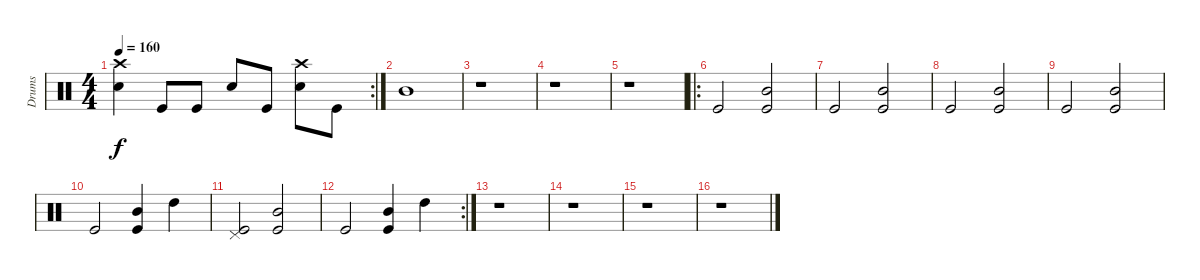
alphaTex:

\track ("Drums" "Drums") {instrument percussion}
\staff {score}
\articulation defaults
\rc 2
\ts (4 4)
\tempo 160
\clef neutral
\ks c
("Crash high (hit)" "Snare (hit) 2").4{dy f} "Kick (hit)".8 "Kick (hit)".8 "Snare (hit) 2".8 "Kick (hit)".8 ("Crash high (hit)" "Snare (hit) 2").8 "Kick (hit)".8 |
"Mid Tom (hit)".1 |
r.1 |
r.1 |
r.1 |
\ro "Kick (hit)".2
("Mid Tom (hit)" "Kick (hit)").2 |
"Kick (hit)".2 ("Mid Tom (hit)" "Kick (hit)").2 |
"Kick (hit)".2 ("Mid Tom (hit)" "Kick (hit)").2 |
"Kick (hit)".2 ("Mid Tom (hit)" "Kick (hit)").2 |
"Kick (hit)".2 ("Mid Tom (hit)" "Kick (hit)").4 "High Tom (hit)".4 |
("Pedal Hi-Hat (hit)" "Kick (hit)").2 ("Mid Tom (hit)" "Kick (hit)").2 |
\rc 2 "Kick (hit)".2
("Mid Tom (hit)" "Kick (hit)").4 "High Tom (hit)".4 |
r.1 |
r.1 |
r.1 |
r.1
